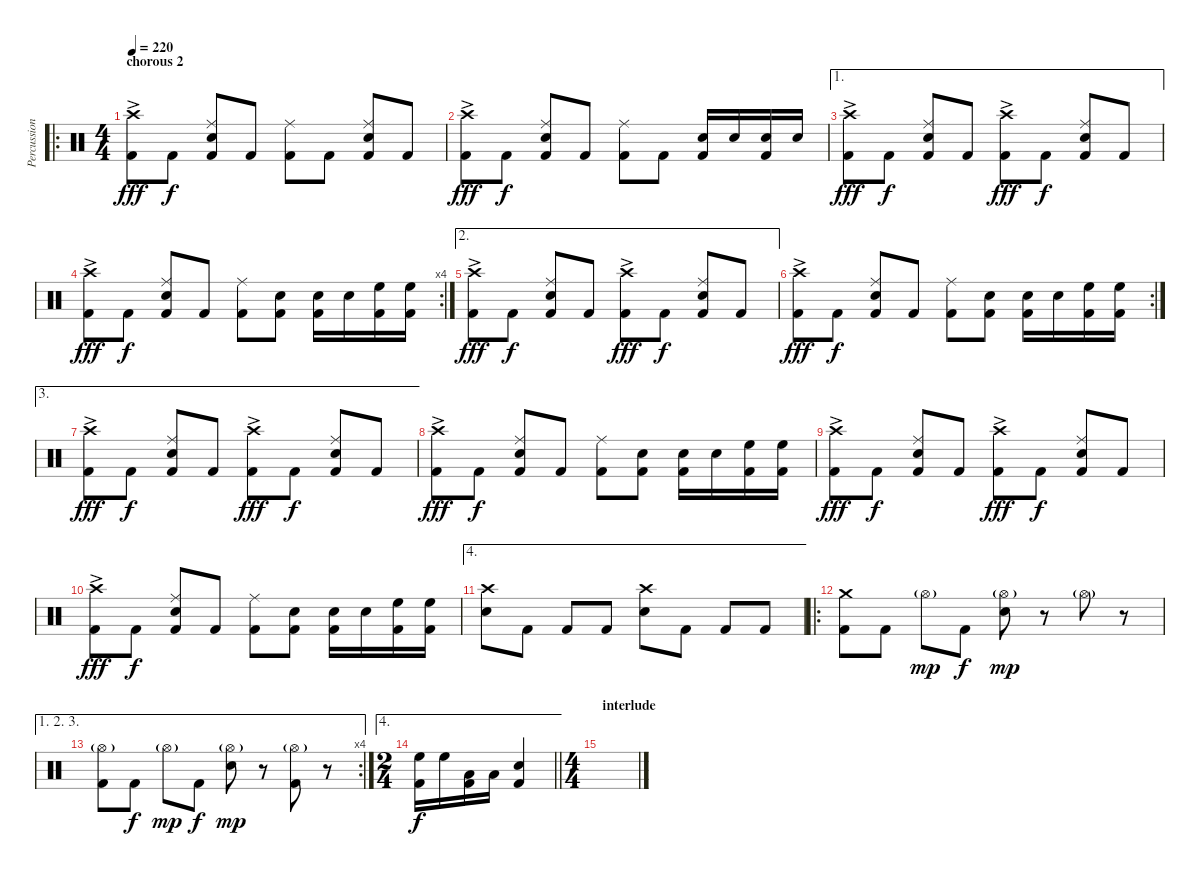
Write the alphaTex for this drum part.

\track ("Percussion" "Percussion") {instrument percussion}
\staff {score}
\articulation defaults
\ro
\ts (4 4)
\section ("" "chorous 2")
\tempo 220
\clef neutral
\ks c
("Crash high (hit)"{ac} "Kick (hit) 2").8{dy fff} "Kick (hit) 2".8{dy f} ("Ride (middle)" "Electric Snare (hit)" "Kick (hit) 2").8 "Kick (hit) 2".8 ("Ride (middle)" "Kick (hit) 2").8 "Kick (hit) 2".8 ("Ride (middle)" "Electric Snare (hit)" "Kick (hit) 2").8 "Kick (hit) 2".8 |
("Crash high (hit)"{ac} "Kick (hit) 2").8{dy fff} "Kick (hit) 2".8{dy f} ("Ride (middle)" "Electric Snare (hit)" "Kick (hit) 2").8 "Kick (hit) 2".8 ("Ride (middle)" "Kick (hit) 2").8 "Kick (hit) 2".8 ("Electric Snare (hit)" "Kick (hit) 2").16 "Electric Snare (hit)".16 ("Electric Snare (hit)" "Kick (hit) 2").16 "Electric Snare (hit)".16 |
\ae 1
("Crash high (hit)"{ac} "Kick (hit) 2").8{dy fff} "Kick (hit) 2".8{dy f} ("Ride (middle)" "Electric Snare (hit)" "Kick (hit) 2").8 "Kick (hit) 2".8 ("Crash high (hit)"{ac} "Kick (hit) 2").8{dy fff} "Kick (hit) 2".8{dy f} ("Ride (middle)" "Electric Snare (hit)" "Kick (hit) 2").8 "Kick (hit) 2".8 |
\rc 4
("Crash high (hit)"{ac} "Kick (hit) 2").8{dy fff} "Kick (hit) 2".8{dy f} ("Ride (middle)" "Electric Snare (hit)" "Kick (hit) 2").8 "Kick (hit) 2".8 ("Ride (middle)" "Kick (hit) 2").8 ("Electric Snare (hit)" "Kick (hit) 2").8 ("Electric Snare (hit)" "Kick (hit) 2").16 "Electric Snare (hit)".16 ("High Floor Tom (hit)" "Kick (hit) 2").16 ("High Floor Tom (hit)" "Kick (hit) 2").16 |
\ae 2
("Crash high (hit)"{ac} "Kick (hit) 2").8{dy fff} "Kick (hit) 2".8{dy f} ("Ride (middle)" "Electric Snare (hit)" "Kick (hit) 2").8 "Kick (hit) 2".8 ("Crash high (hit)"{ac} "Kick (hit) 2").8{dy fff} "Kick (hit) 2".8{dy f} ("Ride (middle)" "Electric Snare (hit)" "Kick (hit) 2").8 "Kick (hit) 2".8 |
\rc 2
("Crash high (hit)"{ac} "Kick (hit) 2").8{dy fff} "Kick (hit) 2".8{dy f} ("Ride (middle)" "Electric Snare (hit)" "Kick (hit) 2").8 "Kick (hit) 2".8 ("Ride (middle)" "Kick (hit) 2").8 ("Electric Snare (hit)" "Kick (hit) 2").8 ("Electric Snare (hit)" "Kick (hit) 2").16 "Electric Snare (hit)".16 ("High Floor Tom (hit)" "Kick (hit) 2").16 ("High Floor Tom (hit)" "Kick (hit) 2").16 |
\ae 3
("Crash high (hit)"{ac} "Kick (hit) 2").8{dy fff} "Kick (hit) 2".8{dy f} ("Ride (middle)" "Electric Snare (hit)" "Kick (hit) 2").8 "Kick (hit) 2".8 ("Crash high (hit)"{ac} "Kick (hit) 2").8{dy fff} "Kick (hit) 2".8{dy f} ("Ride (middle)" "Electric Snare (hit)" "Kick (hit) 2").8 "Kick (hit) 2".8 |
("Crash high (hit)"{ac} "Kick (hit) 2").8{dy fff} "Kick (hit) 2".8{dy f} ("Ride (middle)" "Electric Snare (hit)" "Kick (hit) 2").8 "Kick (hit) 2".8 ("Ride (middle)" "Kick (hit) 2").8 ("Electric Snare (hit)" "Kick (hit) 2").8 ("Electric Snare (hit)" "Kick (hit) 2").16 "Electric Snare (hit)".16 ("High Floor Tom (hit)" "Kick (hit) 2").16 ("High Floor Tom (hit)" "Kick (hit) 2").16 |
("Crash high (hit)"{ac} "Kick (hit) 2").8{dy fff} "Kick (hit) 2".8{dy f} ("Ride (middle)" "Electric Snare (hit)" "Kick (hit) 2").8 "Kick (hit) 2".8 ("Crash high (hit)"{ac} "Kick (hit) 2").8{dy fff} "Kick (hit) 2".8{dy f} ("Ride (middle)" "Electric Snare (hit)" "Kick (hit) 2").8 "Kick (hit) 2".8 |
("Crash high (hit)"{ac} "Kick (hit) 2").8{dy fff} "Kick (hit) 2".8{dy f} ("Ride (middle)" "Electric Snare (hit)" "Kick (hit) 2").8 "Kick (hit) 2".8 ("Ride (middle)" "Kick (hit) 2").8 ("Electric Snare (hit)" "Kick (hit) 2").8 ("Electric Snare (hit)" "Kick (hit) 2").16 "Electric Snare (hit)".16 ("High Floor Tom (hit)" "Kick (hit) 2").16 ("High Floor Tom (hit)" "Kick (hit) 2").16 |
\ae 4
("Crash high (hit)" "Electric Snare (hit)").8 "Kick (hit) 2".8 "Kick (hit) 2".8 "Kick (hit) 2".8 ("Crash high (hit)" "Electric Snare (hit)").8 "Kick (hit) 2".8 "Kick (hit) 2".8 "Kick (hit) 2".8 |
\ro
("Crash medium (hit)" "Kick (hit) 2").8 "Kick (hit) 2".8 "Hi-Hat (open)"{g}.8{dy mp} "Kick (hit) 2".8{dy f} ("Hi-Hat (open)"{g} "Electric Snare (hit)").8{dy mp} r.8 "Hi-Hat (open)"{g}.8 r.8 |
\ae (1 2 3)
\rc 4
("Hi-Hat (open)"{g} "Kick (hit) 2").8 "Kick (hit) 2".8{dy f} "Hi-Hat (open)"{g}.8{dy mp} "Kick (hit) 2".8{dy f} ("Hi-Hat (open)"{g} "Electric Snare (hit)").8{dy mp} r.8 ("Hi-Hat (open)"{g} "Kick (hit) 2").8 r.8 |
\ae 4
\ts (2 4)
\barLineRight lightlight
("High Floor Tom (hit)" "Kick (hit) 2").16{dy f} "High Floor Tom (hit)".16 ("Low Tom (hit)" "Kick (hit) 2").16 "Low Tom (hit)".16 ("Electric Snare (hit)" "Kick (hit) 2").4 |
\ts (4 4)
\section ("" "interlude")
